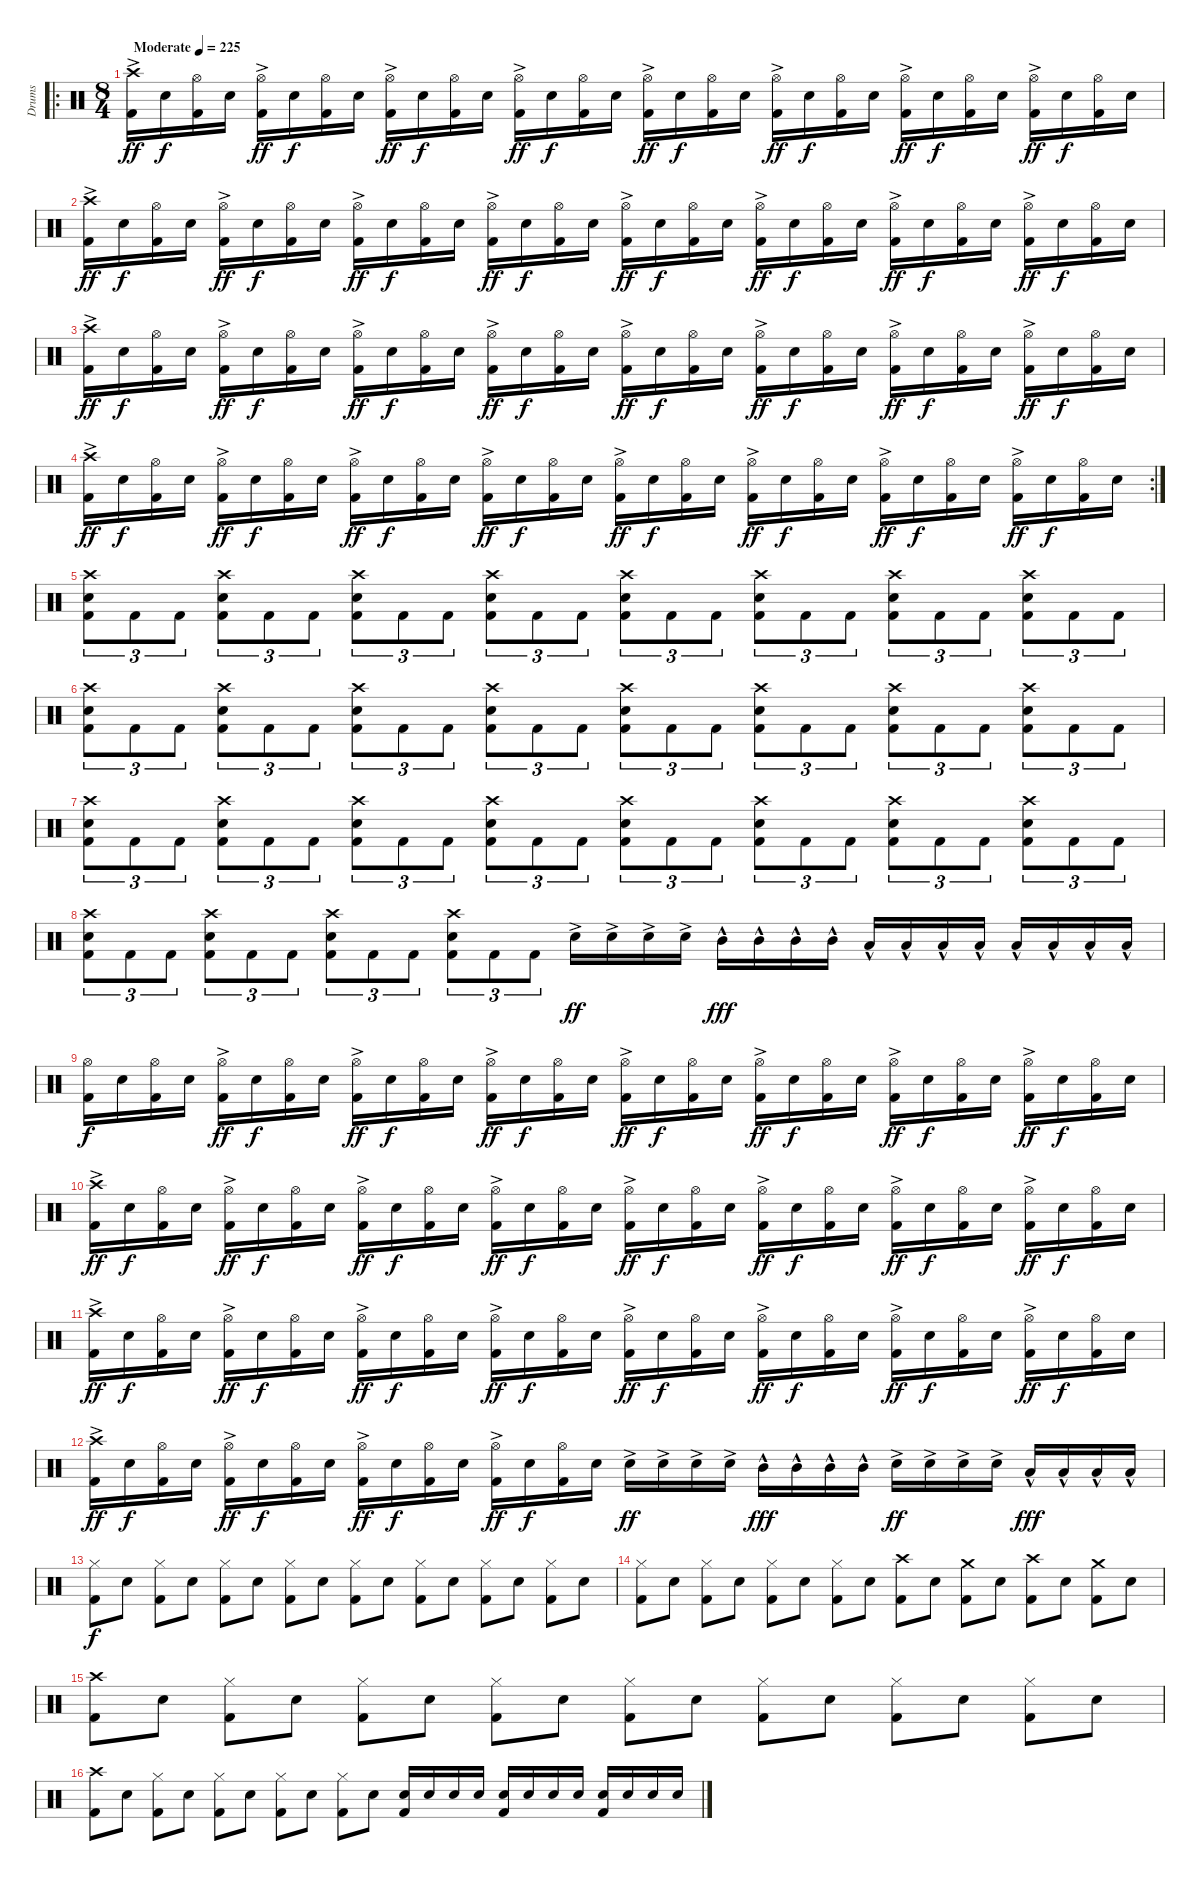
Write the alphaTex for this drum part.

\track ("Drums" "Drums") {instrument percussion}
\staff {score}
\articulation defaults
\ro
\ts (8 4)
\tempo (225 "Moderate")
\clef neutral
\ks c
("Crash high (hit)"{ac} "Kick (hit) 2").16{dy ff} "Electric Snare (hit)".16{dy f} ("Hi-Hat (open)" "Kick (hit) 2").16 "Electric Snare (hit)".16 ("Hi-Hat (open)"{ac} "Kick (hit) 2").16{dy ff} "Electric Snare (hit)".16{dy f} ("Hi-Hat (open)" "Kick (hit) 2").16 "Electric Snare (hit)".16 ("Hi-Hat (open)"{ac} "Kick (hit) 2").16{dy ff} "Electric Snare (hit)".16{dy f} ("Hi-Hat (open)" "Kick (hit) 2").16 "Electric Snare (hit)".16 ("Hi-Hat (open)"{ac} "Kick (hit) 2").16{dy ff} "Electric Snare (hit)".16{dy f} ("Hi-Hat (open)" "Kick (hit) 2").16 "Electric Snare (hit)".16 ("Hi-Hat (open)"{ac} "Kick (hit) 2").16{dy ff} "Electric Snare (hit)".16{dy f} ("Hi-Hat (open)" "Kick (hit) 2").16 "Electric Snare (hit)".16 ("Hi-Hat (open)"{ac} "Kick (hit) 2").16{dy ff} "Electric Snare (hit)".16{dy f} ("Hi-Hat (open)" "Kick (hit) 2").16 "Electric Snare (hit)".16 ("Hi-Hat (open)"{ac} "Kick (hit) 2").16{dy ff} "Electric Snare (hit)".16{dy f} ("Hi-Hat (open)" "Kick (hit) 2").16 "Electric Snare (hit)".16 ("Hi-Hat (open)"{ac} "Kick (hit) 2").16{dy ff} "Electric Snare (hit)".16{dy f} ("Hi-Hat (open)" "Kick (hit) 2").16 "Electric Snare (hit)".16 |
("Crash high (hit)"{ac} "Kick (hit) 2").16{dy ff} "Electric Snare (hit)".16{dy f} ("Hi-Hat (open)" "Kick (hit) 2").16 "Electric Snare (hit)".16 ("Hi-Hat (open)"{ac} "Kick (hit) 2").16{dy ff} "Electric Snare (hit)".16{dy f} ("Hi-Hat (open)" "Kick (hit) 2").16 "Electric Snare (hit)".16 ("Hi-Hat (open)"{ac} "Kick (hit) 2").16{dy ff} "Electric Snare (hit)".16{dy f} ("Hi-Hat (open)" "Kick (hit) 2").16 "Electric Snare (hit)".16 ("Hi-Hat (open)"{ac} "Kick (hit) 2").16{dy ff} "Electric Snare (hit)".16{dy f} ("Hi-Hat (open)" "Kick (hit) 2").16 "Electric Snare (hit)".16 ("Hi-Hat (open)"{ac} "Kick (hit) 2").16{dy ff} "Electric Snare (hit)".16{dy f} ("Hi-Hat (open)" "Kick (hit) 2").16 "Electric Snare (hit)".16 ("Hi-Hat (open)"{ac} "Kick (hit) 2").16{dy ff} "Electric Snare (hit)".16{dy f} ("Hi-Hat (open)" "Kick (hit) 2").16 "Electric Snare (hit)".16 ("Hi-Hat (open)"{ac} "Kick (hit) 2").16{dy ff} "Electric Snare (hit)".16{dy f} ("Hi-Hat (open)" "Kick (hit) 2").16 "Electric Snare (hit)".16 ("Hi-Hat (open)"{ac} "Kick (hit) 2").16{dy ff} "Electric Snare (hit)".16{dy f} ("Hi-Hat (open)" "Kick (hit) 2").16 "Electric Snare (hit)".16 |
("Crash high (hit)"{ac} "Kick (hit) 2").16{dy ff} "Electric Snare (hit)".16{dy f} ("Hi-Hat (open)" "Kick (hit) 2").16 "Electric Snare (hit)".16 ("Hi-Hat (open)"{ac} "Kick (hit) 2").16{dy ff} "Electric Snare (hit)".16{dy f} ("Hi-Hat (open)" "Kick (hit) 2").16 "Electric Snare (hit)".16 ("Hi-Hat (open)"{ac} "Kick (hit) 2").16{dy ff} "Electric Snare (hit)".16{dy f} ("Hi-Hat (open)" "Kick (hit) 2").16 "Electric Snare (hit)".16 ("Hi-Hat (open)"{ac} "Kick (hit) 2").16{dy ff} "Electric Snare (hit)".16{dy f} ("Hi-Hat (open)" "Kick (hit) 2").16 "Electric Snare (hit)".16 ("Hi-Hat (open)"{ac} "Kick (hit) 2").16{dy ff} "Electric Snare (hit)".16{dy f} ("Hi-Hat (open)" "Kick (hit) 2").16 "Electric Snare (hit)".16 ("Hi-Hat (open)"{ac} "Kick (hit) 2").16{dy ff} "Electric Snare (hit)".16{dy f} ("Hi-Hat (open)" "Kick (hit) 2").16 "Electric Snare (hit)".16 ("Hi-Hat (open)"{ac} "Kick (hit) 2").16{dy ff} "Electric Snare (hit)".16{dy f} ("Hi-Hat (open)" "Kick (hit) 2").16 "Electric Snare (hit)".16 ("Hi-Hat (open)"{ac} "Kick (hit) 2").16{dy ff} "Electric Snare (hit)".16{dy f} ("Hi-Hat (open)" "Kick (hit) 2").16 "Electric Snare (hit)".16 |
\rc 2
("Crash high (hit)"{ac} "Kick (hit) 2").16{dy ff} "Electric Snare (hit)".16{dy f} ("Hi-Hat (open)" "Kick (hit) 2").16 "Electric Snare (hit)".16 ("Hi-Hat (open)"{ac} "Kick (hit) 2").16{dy ff} "Electric Snare (hit)".16{dy f} ("Hi-Hat (open)" "Kick (hit) 2").16 "Electric Snare (hit)".16 ("Hi-Hat (open)"{ac} "Kick (hit) 2").16{dy ff} "Electric Snare (hit)".16{dy f} ("Hi-Hat (open)" "Kick (hit) 2").16 "Electric Snare (hit)".16 ("Hi-Hat (open)"{ac} "Kick (hit) 2").16{dy ff} "Electric Snare (hit)".16{dy f} ("Hi-Hat (open)" "Kick (hit) 2").16 "Electric Snare (hit)".16 ("Hi-Hat (open)"{ac} "Kick (hit) 2").16{dy ff} "Electric Snare (hit)".16{dy f} ("Hi-Hat (open)" "Kick (hit) 2").16 "Electric Snare (hit)".16 ("Hi-Hat (open)"{ac} "Kick (hit) 2").16{dy ff} "Electric Snare (hit)".16{dy f} ("Hi-Hat (open)" "Kick (hit) 2").16 "Electric Snare (hit)".16 ("Hi-Hat (open)"{ac} "Kick (hit) 2").16{dy ff} "Electric Snare (hit)".16{dy f} ("Hi-Hat (open)" "Kick (hit) 2").16 "Electric Snare (hit)".16 ("Hi-Hat (open)"{ac} "Kick (hit) 2").16{dy ff} "Electric Snare (hit)".16{dy f} ("Hi-Hat (open)" "Kick (hit) 2").16 "Electric Snare (hit)".16 |
("Crash high (hit)" "Electric Snare (hit)" "Kick (hit) 2").8{tu (3 2)} "Kick (hit) 2".8{tu (3 2)} "Kick (hit) 2".8{tu (3 2)} ("Crash high (hit)" "Electric Snare (hit)" "Kick (hit) 2").8{tu (3 2)} "Kick (hit) 2".8{tu (3 2)} "Kick (hit) 2".8{tu (3 2)} ("Crash high (hit)" "Electric Snare (hit)" "Kick (hit) 2").8{tu (3 2)} "Kick (hit) 2".8{tu (3 2)} "Kick (hit) 2".8{tu (3 2)} ("Crash high (hit)" "Electric Snare (hit)" "Kick (hit) 2").8{tu (3 2)} "Kick (hit) 2".8{tu (3 2)} "Kick (hit) 2".8{tu (3 2)} ("Crash high (hit)" "Electric Snare (hit)" "Kick (hit) 2").8{tu (3 2)} "Kick (hit) 2".8{tu (3 2)} "Kick (hit) 2".8{tu (3 2)} ("Crash high (hit)" "Electric Snare (hit)" "Kick (hit) 2").8{tu (3 2)} "Kick (hit) 2".8{tu (3 2)} "Kick (hit) 2".8{tu (3 2)} ("Crash high (hit)" "Electric Snare (hit)" "Kick (hit) 2").8{tu (3 2)} "Kick (hit) 2".8{tu (3 2)} "Kick (hit) 2".8{tu (3 2)} ("Crash high (hit)" "Electric Snare (hit)" "Kick (hit) 2").8{tu (3 2)} "Kick (hit) 2".8{tu (3 2)} "Kick (hit) 2".8{tu (3 2)} |
("Crash high (hit)" "Electric Snare (hit)" "Kick (hit) 2").8{tu (3 2)} "Kick (hit) 2".8{tu (3 2)} "Kick (hit) 2".8{tu (3 2)} ("Crash high (hit)" "Electric Snare (hit)" "Kick (hit) 2").8{tu (3 2)} "Kick (hit) 2".8{tu (3 2)} "Kick (hit) 2".8{tu (3 2)} ("Crash high (hit)" "Electric Snare (hit)" "Kick (hit) 2").8{tu (3 2)} "Kick (hit) 2".8{tu (3 2)} "Kick (hit) 2".8{tu (3 2)} ("Crash high (hit)" "Electric Snare (hit)" "Kick (hit) 2").8{tu (3 2)} "Kick (hit) 2".8{tu (3 2)} "Kick (hit) 2".8{tu (3 2)} ("Crash high (hit)" "Electric Snare (hit)" "Kick (hit) 2").8{tu (3 2)} "Kick (hit) 2".8{tu (3 2)} "Kick (hit) 2".8{tu (3 2)} ("Crash high (hit)" "Electric Snare (hit)" "Kick (hit) 2").8{tu (3 2)} "Kick (hit) 2".8{tu (3 2)} "Kick (hit) 2".8{tu (3 2)} ("Crash high (hit)" "Electric Snare (hit)" "Kick (hit) 2").8{tu (3 2)} "Kick (hit) 2".8{tu (3 2)} "Kick (hit) 2".8{tu (3 2)} ("Crash high (hit)" "Electric Snare (hit)" "Kick (hit) 2").8{tu (3 2)} "Kick (hit) 2".8{tu (3 2)} "Kick (hit) 2".8{tu (3 2)} |
("Crash high (hit)" "Electric Snare (hit)" "Kick (hit) 2").8{tu (3 2)} "Kick (hit) 2".8{tu (3 2)} "Kick (hit) 2".8{tu (3 2)} ("Crash high (hit)" "Electric Snare (hit)" "Kick (hit) 2").8{tu (3 2)} "Kick (hit) 2".8{tu (3 2)} "Kick (hit) 2".8{tu (3 2)} ("Crash high (hit)" "Electric Snare (hit)" "Kick (hit) 2").8{tu (3 2)} "Kick (hit) 2".8{tu (3 2)} "Kick (hit) 2".8{tu (3 2)} ("Crash high (hit)" "Electric Snare (hit)" "Kick (hit) 2").8{tu (3 2)} "Kick (hit) 2".8{tu (3 2)} "Kick (hit) 2".8{tu (3 2)} ("Crash high (hit)" "Electric Snare (hit)" "Kick (hit) 2").8{tu (3 2)} "Kick (hit) 2".8{tu (3 2)} "Kick (hit) 2".8{tu (3 2)} ("Crash high (hit)" "Electric Snare (hit)" "Kick (hit) 2").8{tu (3 2)} "Kick (hit) 2".8{tu (3 2)} "Kick (hit) 2".8{tu (3 2)} ("Crash high (hit)" "Electric Snare (hit)" "Kick (hit) 2").8{tu (3 2)} "Kick (hit) 2".8{tu (3 2)} "Kick (hit) 2".8{tu (3 2)} ("Crash high (hit)" "Electric Snare (hit)" "Kick (hit) 2").8{tu (3 2)} "Kick (hit) 2".8{tu (3 2)} "Kick (hit) 2".8{tu (3 2)} |
("Crash high (hit)" "Electric Snare (hit)" "Kick (hit) 2").8{tu (3 2)} "Kick (hit) 2".8{tu (3 2)} "Kick (hit) 2".8{tu (3 2)} ("Crash high (hit)" "Electric Snare (hit)" "Kick (hit) 2").8{tu (3 2)} "Kick (hit) 2".8{tu (3 2)} "Kick (hit) 2".8{tu (3 2)} ("Crash high (hit)" "Electric Snare (hit)" "Kick (hit) 2").8{tu (3 2)} "Kick (hit) 2".8{tu (3 2)} "Kick (hit) 2".8{tu (3 2)} ("Crash high (hit)" "Electric Snare (hit)" "Kick (hit) 2").8{tu (3 2)} "Kick (hit) 2".8{tu (3 2)} "Kick (hit) 2".8{tu (3 2)} "Electric Snare (hit)"{ac}.16{dy ff} "Electric Snare (hit)"{ac}.16 "Electric Snare (hit)"{ac}.16 "Electric Snare (hit)"{ac}.16 "Mid Tom (hit)"{hac}.16{dy fff} "Mid Tom (hit)"{hac}.16 "Mid Tom (hit)"{hac}.16 "Mid Tom (hit)"{hac}.16 "Low Tom (hit)"{hac}.16 "Low Tom (hit)"{hac}.16 "Low Tom (hit)"{hac}.16 "Low Tom (hit)"{hac}.16 "Low Floor Tom (hit)"{hac}.16 "Low Floor Tom (hit)"{hac}.16 "Low Floor Tom (hit)"{hac}.16 "Low Floor Tom (hit)"{hac}.16 |
("Hi-Hat (open)" "Kick (hit) 2").16{dy f} "Electric Snare (hit)".16 ("Hi-Hat (open)" "Kick (hit) 2").16 "Electric Snare (hit)".16 ("Hi-Hat (open)"{ac} "Kick (hit) 2").16{dy ff} "Electric Snare (hit)".16{dy f} ("Hi-Hat (open)" "Kick (hit) 2").16 "Electric Snare (hit)".16 ("Hi-Hat (open)"{ac} "Kick (hit) 2").16{dy ff} "Electric Snare (hit)".16{dy f} ("Hi-Hat (open)" "Kick (hit) 2").16 "Electric Snare (hit)".16 ("Hi-Hat (open)"{ac} "Kick (hit) 2").16{dy ff} "Electric Snare (hit)".16{dy f} ("Hi-Hat (open)" "Kick (hit) 2").16 "Electric Snare (hit)".16 ("Hi-Hat (open)"{ac} "Kick (hit) 2").16{dy ff} "Electric Snare (hit)".16{dy f} ("Hi-Hat (open)" "Kick (hit) 2").16 "Electric Snare (hit)".16 ("Hi-Hat (open)"{ac} "Kick (hit) 2").16{dy ff} "Electric Snare (hit)".16{dy f} ("Hi-Hat (open)" "Kick (hit) 2").16 "Electric Snare (hit)".16 ("Hi-Hat (open)"{ac} "Kick (hit) 2").16{dy ff} "Electric Snare (hit)".16{dy f} ("Hi-Hat (open)" "Kick (hit) 2").16 "Electric Snare (hit)".16 ("Hi-Hat (open)"{ac} "Kick (hit) 2").16{dy ff} "Electric Snare (hit)".16{dy f} ("Hi-Hat (open)" "Kick (hit) 2").16 "Electric Snare (hit)".16 |
("Crash high (hit)"{ac} "Kick (hit) 2").16{dy ff} "Electric Snare (hit)".16{dy f} ("Hi-Hat (open)" "Kick (hit) 2").16 "Electric Snare (hit)".16 ("Hi-Hat (open)"{ac} "Kick (hit) 2").16{dy ff} "Electric Snare (hit)".16{dy f} ("Hi-Hat (open)" "Kick (hit) 2").16 "Electric Snare (hit)".16 ("Hi-Hat (open)"{ac} "Kick (hit) 2").16{dy ff} "Electric Snare (hit)".16{dy f} ("Hi-Hat (open)" "Kick (hit) 2").16 "Electric Snare (hit)".16 ("Hi-Hat (open)"{ac} "Kick (hit) 2").16{dy ff} "Electric Snare (hit)".16{dy f} ("Hi-Hat (open)" "Kick (hit) 2").16 "Electric Snare (hit)".16 ("Hi-Hat (open)"{ac} "Kick (hit) 2").16{dy ff} "Electric Snare (hit)".16{dy f} ("Hi-Hat (open)" "Kick (hit) 2").16 "Electric Snare (hit)".16 ("Hi-Hat (open)"{ac} "Kick (hit) 2").16{dy ff} "Electric Snare (hit)".16{dy f} ("Hi-Hat (open)" "Kick (hit) 2").16 "Electric Snare (hit)".16 ("Hi-Hat (open)"{ac} "Kick (hit) 2").16{dy ff} "Electric Snare (hit)".16{dy f} ("Hi-Hat (open)" "Kick (hit) 2").16 "Electric Snare (hit)".16 ("Hi-Hat (open)"{ac} "Kick (hit) 2").16{dy ff} "Electric Snare (hit)".16{dy f} ("Hi-Hat (open)" "Kick (hit) 2").16 "Electric Snare (hit)".16 |
("Crash high (hit)"{ac} "Kick (hit) 2").16{dy ff} "Electric Snare (hit)".16{dy f} ("Hi-Hat (open)" "Kick (hit) 2").16 "Electric Snare (hit)".16 ("Hi-Hat (open)"{ac} "Kick (hit) 2").16{dy ff} "Electric Snare (hit)".16{dy f} ("Hi-Hat (open)" "Kick (hit) 2").16 "Electric Snare (hit)".16 ("Hi-Hat (open)"{ac} "Kick (hit) 2").16{dy ff} "Electric Snare (hit)".16{dy f} ("Hi-Hat (open)" "Kick (hit) 2").16 "Electric Snare (hit)".16 ("Hi-Hat (open)"{ac} "Kick (hit) 2").16{dy ff} "Electric Snare (hit)".16{dy f} ("Hi-Hat (open)" "Kick (hit) 2").16 "Electric Snare (hit)".16 ("Hi-Hat (open)"{ac} "Kick (hit) 2").16{dy ff} "Electric Snare (hit)".16{dy f} ("Hi-Hat (open)" "Kick (hit) 2").16 "Electric Snare (hit)".16 ("Hi-Hat (open)"{ac} "Kick (hit) 2").16{dy ff} "Electric Snare (hit)".16{dy f} ("Hi-Hat (open)" "Kick (hit) 2").16 "Electric Snare (hit)".16 ("Hi-Hat (open)"{ac} "Kick (hit) 2").16{dy ff} "Electric Snare (hit)".16{dy f} ("Hi-Hat (open)" "Kick (hit) 2").16 "Electric Snare (hit)".16 ("Hi-Hat (open)"{ac} "Kick (hit) 2").16{dy ff} "Electric Snare (hit)".16{dy f} ("Hi-Hat (open)" "Kick (hit) 2").16 "Electric Snare (hit)".16 |
("Crash high (hit)"{ac} "Kick (hit) 2").16{dy ff} "Electric Snare (hit)".16{dy f} ("Hi-Hat (open)" "Kick (hit) 2").16 "Electric Snare (hit)".16 ("Hi-Hat (open)"{ac} "Kick (hit) 2").16{dy ff} "Electric Snare (hit)".16{dy f} ("Hi-Hat (open)" "Kick (hit) 2").16 "Electric Snare (hit)".16 ("Hi-Hat (open)"{ac} "Kick (hit) 2").16{dy ff} "Electric Snare (hit)".16{dy f} ("Hi-Hat (open)" "Kick (hit) 2").16 "Electric Snare (hit)".16 ("Hi-Hat (open)"{ac} "Kick (hit) 2").16{dy ff} "Electric Snare (hit)".16{dy f} ("Hi-Hat (open)" "Kick (hit) 2").16 "Electric Snare (hit)".16 "Electric Snare (hit)"{ac}.16{dy ff} "Electric Snare (hit)"{ac}.16 "Electric Snare (hit)"{ac}.16 "Electric Snare (hit)"{ac}.16 "Mid Tom (hit)"{hac}.16{dy fff} "Mid Tom (hit)"{hac}.16 "Mid Tom (hit)"{hac}.16 "Mid Tom (hit)"{hac}.16 "Electric Snare (hit)"{ac}.16{dy ff} "Electric Snare (hit)"{ac}.16 "Electric Snare (hit)"{ac}.16 "Electric Snare (hit)"{ac}.16 "Low Tom (hit)"{hac}.16{dy fff} "Low Tom (hit)"{hac}.16 "Low Tom (hit)"{hac}.16 "Low Tom (hit)"{hac}.16 |
("Hi-Hat (closed)" "Kick (hit) 2").8{dy f} "Electric Snare (hit)".8 ("Hi-Hat (closed)" "Kick (hit) 2").8 "Electric Snare (hit)".8 ("Hi-Hat (closed)" "Kick (hit) 2").8 "Electric Snare (hit)".8 ("Hi-Hat (closed)" "Kick (hit) 2").8 "Electric Snare (hit)".8 ("Hi-Hat (closed)" "Kick (hit) 2").8 "Electric Snare (hit)".8 ("Hi-Hat (closed)" "Kick (hit) 2").8 "Electric Snare (hit)".8 ("Hi-Hat (closed)" "Kick (hit) 2").8 "Electric Snare (hit)".8 ("Hi-Hat (closed)" "Kick (hit) 2").8 "Electric Snare (hit)".8 |
("Hi-Hat (closed)" "Kick (hit) 2").8 "Electric Snare (hit)".8 ("Hi-Hat (closed)" "Kick (hit) 2").8 "Electric Snare (hit)".8 ("Hi-Hat (closed)" "Kick (hit) 2").8 "Electric Snare (hit)".8 ("Hi-Hat (closed)" "Kick (hit) 2").8 "Electric Snare (hit)".8 ("Crash high (hit)" "Kick (hit) 2").8 "Electric Snare (hit)".8 ("Crash medium (hit)" "Kick (hit) 2").8 "Electric Snare (hit)".8 ("Crash high (hit)" "Kick (hit) 2").8 "Electric Snare (hit)".8 ("Crash medium (hit)" "Kick (hit) 2").8 "Electric Snare (hit)".8 |
("Crash high (hit)" "Kick (hit) 2").8 "Electric Snare (hit)".8 ("Hi-Hat (closed)" "Kick (hit) 2").8 "Electric Snare (hit)".8 ("Hi-Hat (closed)" "Kick (hit) 2").8 "Electric Snare (hit)".8 ("Hi-Hat (closed)" "Kick (hit) 2").8 "Electric Snare (hit)".8 ("Hi-Hat (closed)" "Kick (hit) 2").8 "Electric Snare (hit)".8 ("Hi-Hat (closed)" "Kick (hit) 2").8 "Electric Snare (hit)".8 ("Hi-Hat (closed)" "Kick (hit) 2").8 "Electric Snare (hit)".8 ("Hi-Hat (closed)" "Kick (hit) 2").8 "Electric Snare (hit)".8 |
("Crash high (hit)" "Kick (hit) 2").8 "Electric Snare (hit)".8 ("Hi-Hat (closed)" "Kick (hit) 2").8 "Electric Snare (hit)".8 ("Hi-Hat (closed)" "Kick (hit) 2").8 "Electric Snare (hit)".8 ("Hi-Hat (closed)" "Kick (hit) 2").8 "Electric Snare (hit)".8 ("Hi-Hat (closed)" "Kick (hit) 2").8 "Electric Snare (hit)".8 ("Electric Snare (hit)" "Kick (hit) 2").16 "Electric Snare (hit)".16 "Electric Snare (hit)".16 "Electric Snare (hit)".16 ("Electric Snare (hit)" "Kick (hit) 2").16 "Electric Snare (hit)".16 "Electric Snare (hit)".16 "Electric Snare (hit)".16 ("Electric Snare (hit)" "Kick (hit) 2").16 "Electric Snare (hit)".16 "Electric Snare (hit)".16 "Electric Snare (hit)".16
